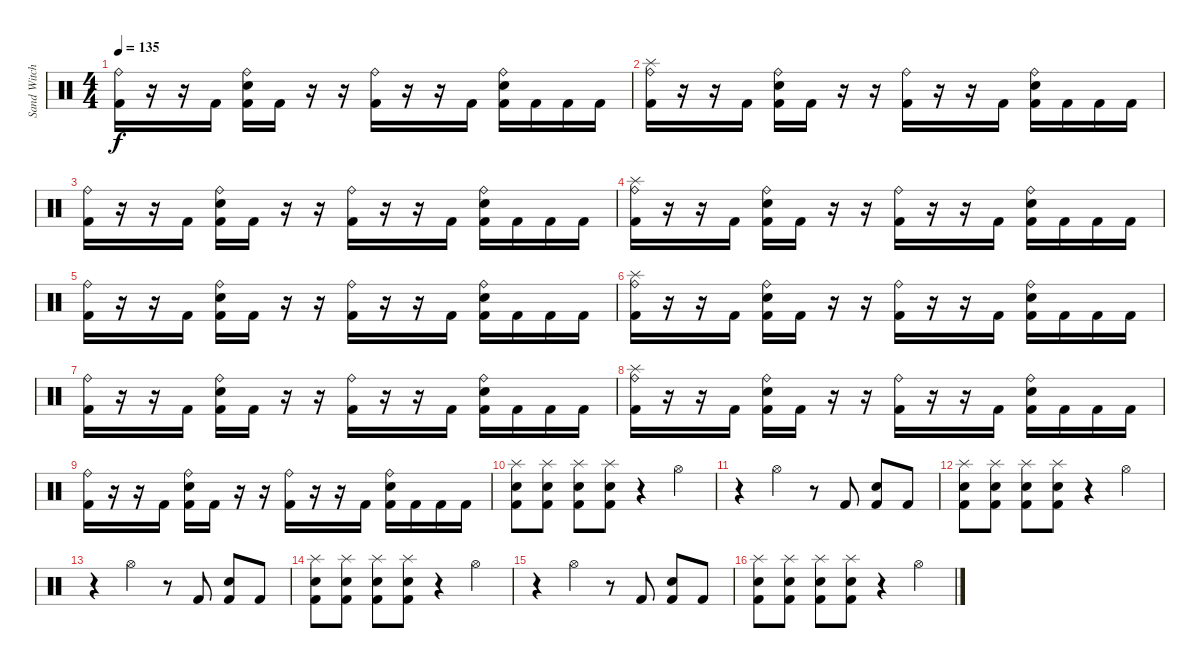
\track ("Sand Witch" "Sand Witch") {instrument percussion}
\staff {score}
\articulation defaults
\ts (4 4)
\tempo 135
\clef neutral
\ks c
("Ride (bell)" "Kick (hit) 2").16{dy f} r.16 r.16 "Kick (hit) 2".16 ("Ride (bell)" "Snare (hit) 2" "Kick (hit) 2").16 "Kick (hit) 2".16 r.16 r.16 ("Ride (bell)" "Kick (hit) 2").16 r.16 r.16 "Kick (hit) 2".16 ("Ride (bell)" "Snare (hit) 2" "Kick (hit) 2").16 "Kick (hit) 2".16 "Kick (hit) 2".16 "Kick (hit) 2".16 |
("Ride (bell)" "Splash (hit)" "Kick (hit) 2").16 r.16 r.16 "Kick (hit) 2".16 ("Ride (bell)" "Snare (hit) 2" "Kick (hit) 2").16 "Kick (hit) 2".16 r.16 r.16 ("Ride (bell)" "Kick (hit) 2").16 r.16 r.16 "Kick (hit) 2".16 ("Ride (bell)" "Snare (hit) 2" "Kick (hit) 2").16 "Kick (hit) 2".16 "Kick (hit) 2".16 "Kick (hit) 2".16 |
("Ride (bell)" "Kick (hit) 2").16 r.16 r.16 "Kick (hit) 2".16 ("Ride (bell)" "Snare (hit) 2" "Kick (hit) 2").16 "Kick (hit) 2".16 r.16 r.16 ("Ride (bell)" "Kick (hit) 2").16 r.16 r.16 "Kick (hit) 2".16 ("Ride (bell)" "Snare (hit) 2" "Kick (hit) 2").16 "Kick (hit) 2".16 "Kick (hit) 2".16 "Kick (hit) 2".16 |
("Ride (bell)" "Splash (hit)" "Kick (hit) 2").16 r.16 r.16 "Kick (hit) 2".16 ("Ride (bell)" "Snare (hit) 2" "Kick (hit) 2").16 "Kick (hit) 2".16 r.16 r.16 ("Ride (bell)" "Kick (hit) 2").16 r.16 r.16 "Kick (hit) 2".16 ("Ride (bell)" "Snare (hit) 2" "Kick (hit) 2").16 "Kick (hit) 2".16 "Kick (hit) 2".16 "Kick (hit) 2".16 |
("Ride (bell)" "Kick (hit) 2").16 r.16 r.16 "Kick (hit) 2".16 ("Ride (bell)" "Snare (hit) 2" "Kick (hit) 2").16 "Kick (hit) 2".16 r.16 r.16 ("Ride (bell)" "Kick (hit) 2").16 r.16 r.16 "Kick (hit) 2".16 ("Ride (bell)" "Snare (hit) 2" "Kick (hit) 2").16 "Kick (hit) 2".16 "Kick (hit) 2".16 "Kick (hit) 2".16 |
("Ride (bell)" "Splash (hit)" "Kick (hit) 2").16 r.16 r.16 "Kick (hit) 2".16 ("Ride (bell)" "Snare (hit) 2" "Kick (hit) 2").16 "Kick (hit) 2".16 r.16 r.16 ("Ride (bell)" "Kick (hit) 2").16 r.16 r.16 "Kick (hit) 2".16 ("Ride (bell)" "Snare (hit) 2" "Kick (hit) 2").16 "Kick (hit) 2".16 "Kick (hit) 2".16 "Kick (hit) 2".16 |
("Ride (bell)" "Kick (hit) 2").16 r.16 r.16 "Kick (hit) 2".16 ("Ride (bell)" "Snare (hit) 2" "Kick (hit) 2").16 "Kick (hit) 2".16 r.16 r.16 ("Ride (bell)" "Kick (hit) 2").16 r.16 r.16 "Kick (hit) 2".16 ("Ride (bell)" "Snare (hit) 2" "Kick (hit) 2").16 "Kick (hit) 2".16 "Kick (hit) 2".16 "Kick (hit) 2".16 |
("Ride (bell)" "Splash (hit)" "Kick (hit) 2").16 r.16 r.16 "Kick (hit) 2".16 ("Ride (bell)" "Snare (hit) 2" "Kick (hit) 2").16 "Kick (hit) 2".16 r.16 r.16 ("Ride (bell)" "Kick (hit) 2").16 r.16 r.16 "Kick (hit) 2".16 ("Ride (bell)" "Snare (hit) 2" "Kick (hit) 2").16 "Kick (hit) 2".16 "Kick (hit) 2".16 "Kick (hit) 2".16 |
("Ride (bell)" "Kick (hit) 2").16 r.16 r.16 "Kick (hit) 2".16 ("Ride (bell)" "Snare (hit) 2" "Kick (hit) 2").16 "Kick (hit) 2".16 r.16 r.16 ("Ride (bell)" "Kick (hit) 2").16 r.16 r.16 "Kick (hit) 2".16 ("Ride (bell)" "Snare (hit) 2" "Kick (hit) 2").16 "Kick (hit) 2".16 "Kick (hit) 2".16 "Kick (hit) 2".16 |
("Splash (hit)" "Snare (hit) 2" "Kick (hit) 2").8 ("Splash (hit)" "Snare (hit) 2" "Kick (hit) 2").8 ("Splash (hit)" "Snare (hit) 2" "Kick (hit) 2").8 ("Splash (hit)" "Snare (hit) 2" "Kick (hit) 2").8 r.4 "Hi-Hat (open)".4 |
r.4 "Hi-Hat (open)".4 r.8 "Kick (hit) 2".8 ("Kick (hit) 2" "Snare (hit) 2").8 "Kick (hit) 2".8 |
("Splash (hit)" "Snare (hit) 2" "Kick (hit) 2").8 ("Splash (hit)" "Snare (hit) 2" "Kick (hit) 2").8 ("Splash (hit)" "Snare (hit) 2" "Kick (hit) 2").8 ("Splash (hit)" "Snare (hit) 2" "Kick (hit) 2").8 r.4 "Hi-Hat (open)".4 |
r.4 "Hi-Hat (open)".4 r.8 "Kick (hit) 2".8 ("Kick (hit) 2" "Snare (hit) 2").8 "Kick (hit) 2".8 |
("Splash (hit)" "Snare (hit) 2" "Kick (hit) 2").8 ("Splash (hit)" "Snare (hit) 2" "Kick (hit) 2").8 ("Splash (hit)" "Snare (hit) 2" "Kick (hit) 2").8 ("Splash (hit)" "Snare (hit) 2" "Kick (hit) 2").8 r.4 "Hi-Hat (open)".4 |
r.4 "Hi-Hat (open)".4 r.8 "Kick (hit) 2".8 ("Kick (hit) 2" "Snare (hit) 2").8 "Kick (hit) 2".8 |
("Splash (hit)" "Snare (hit) 2" "Kick (hit) 2").8 ("Splash (hit)" "Snare (hit) 2" "Kick (hit) 2").8 ("Splash (hit)" "Snare (hit) 2" "Kick (hit) 2").8 ("Splash (hit)" "Snare (hit) 2" "Kick (hit) 2").8 r.4 "Hi-Hat (open)".4
